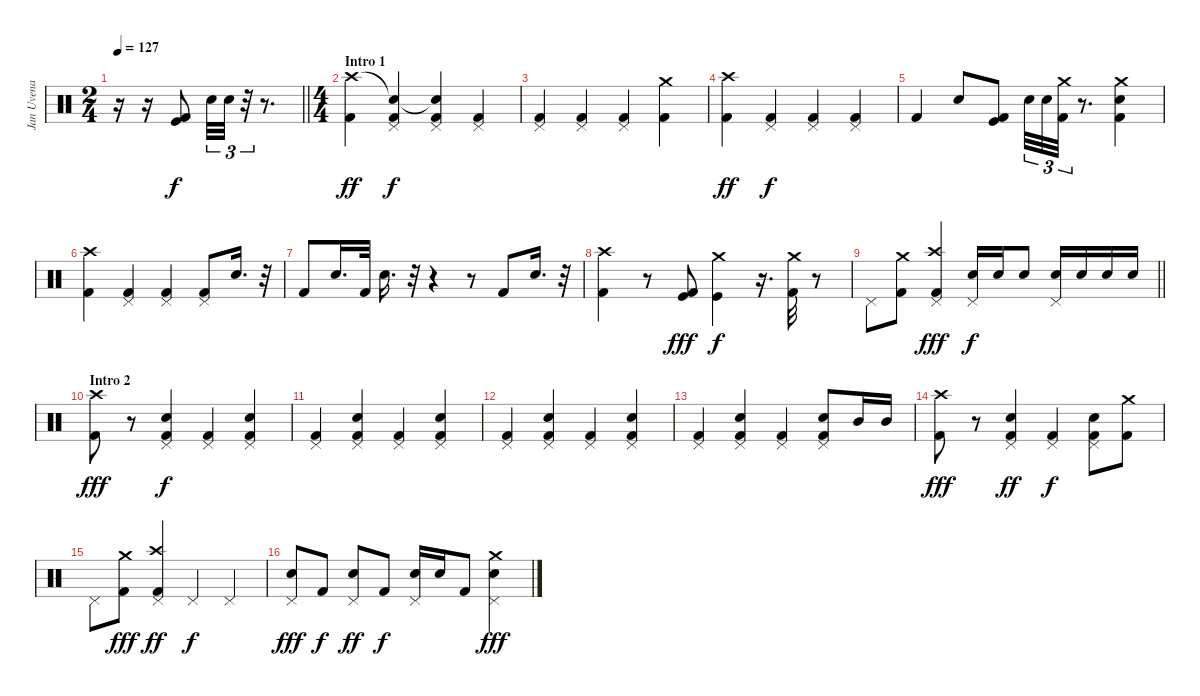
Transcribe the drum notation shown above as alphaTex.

\track ("Jan Uvena" "Jan Uvena") {instrument percussion}
\staff {score}
\articulation defaults
\ts (2 4)
\tempo 127
\clef neutral
\barLineRight lightlight
\ks c
r.16{dy f} r.16 ("Kick (hit)" "Kick (hit) 2").8 "Snare (hit) 2".32{tu (3 2)} "Snare (hit) 2".32{tu (3 2)} r.32{tu (3 2)} r.8{d} |
\ts (4 4)
\section ("" "Intro 1")
("Crash high (hit)" "Kick (hit) 2").4{dy ff} ("Snare (hit)"{t} "Pedal Hi-Hat (hit)" "Kick (hit) 2").4{dy f} ("Snare (hit)"{t} "Pedal Hi-Hat (hit)" "Kick (hit) 2").4 ("Pedal Hi-Hat (hit)" "Kick (hit) 2").4 |
("Pedal Hi-Hat (hit)" "Kick (hit) 2").4 ("Pedal Hi-Hat (hit)" "Kick (hit) 2").4 ("Pedal Hi-Hat (hit)" "Kick (hit) 2").4 ("Crash medium (hit)" "Kick (hit) 2").4 |
("Crash high (hit)" "Kick (hit) 2").4{dy ff} ("Pedal Hi-Hat (hit)" "Kick (hit) 2").4{dy f} ("Pedal Hi-Hat (hit)" "Kick (hit) 2").4 ("Pedal Hi-Hat (hit)" "Kick (hit) 2").4 |
"Kick (hit) 2".4 "Snare (hit) 2".8 ("Kick (hit)" "Kick (hit) 2").8 "Snare (hit) 2".32{tu (3 2)} "Snare (hit) 2".32{tu (3 2)} ("Crash medium (hit)" "Kick (hit) 2").32{tu (3 2)} r.8{d} ("Crash medium (hit)" "Snare (hit) 2" "Kick (hit) 2").4 |
("Crash high (hit)" "Kick (hit) 2").4 ("Pedal Hi-Hat (hit)" "Kick (hit) 2").4 ("Pedal Hi-Hat (hit)" "Kick (hit) 2").4 ("Pedal Hi-Hat (hit)" "Kick (hit) 2").8 "Snare (hit) 2".16{d} r.32 |
"Kick (hit) 2".8 "Snare (hit) 2".16{d} "Kick (hit) 2".32 "Snare (hit) 2".16{d} r.32 r.4 r.8 "Kick (hit) 2".8 "Snare (hit) 2".16{d} r.32 |
("Crash high (hit)" "Kick (hit) 2").4 r.8 ("Kick (hit)" "Kick (hit) 2").8{dy fff} ("Crash medium (hit)" "Kick (hit)").4{dy f} r.16{d} ("Crash medium (hit)" "Kick (hit) 2").32 r.8 |
\barLineRight lightlight "Pedal Hi-Hat (hit)".8
("Crash medium (hit)" "Kick (hit) 2").8 ("Crash high (hit)" "Pedal Hi-Hat (hit)" "Kick (hit) 2").4{dy fff} ("Pedal Hi-Hat (hit)" "Snare (hit) 2").16{dy f} "Snare (hit) 2".16 "Snare (hit) 2".8 ("Pedal Hi-Hat (hit)" "Snare (hit) 2").16 "Snare (hit) 2".16 "Snare (hit) 2".16 "Snare (hit) 2".16 |
\section ("" "Intro 2")
("Crash high (hit)" "Kick (hit) 2").8{dy fff} r.8 ("Pedal Hi-Hat (hit)" "Snare (hit) 2" "Kick (hit) 2").4{dy f} ("Pedal Hi-Hat (hit)" "Kick (hit) 2").4 ("Pedal Hi-Hat (hit)" "Snare (hit) 2" "Kick (hit) 2").4 |
("Pedal Hi-Hat (hit)" "Kick (hit) 2").4 ("Pedal Hi-Hat (hit)" "Snare (hit) 2" "Kick (hit) 2").4 ("Pedal Hi-Hat (hit)" "Kick (hit) 2").4 ("Pedal Hi-Hat (hit)" "Snare (hit) 2" "Kick (hit) 2").4 |
("Pedal Hi-Hat (hit)" "Kick (hit) 2").4 ("Pedal Hi-Hat (hit)" "Snare (hit) 2" "Kick (hit) 2").4 ("Pedal Hi-Hat (hit)" "Kick (hit) 2").4 ("Pedal Hi-Hat (hit)" "Snare (hit) 2" "Kick (hit) 2").4 |
("Pedal Hi-Hat (hit)" "Kick (hit) 2").4 ("Pedal Hi-Hat (hit)" "Snare (hit) 2" "Kick (hit) 2").4 ("Pedal Hi-Hat (hit)" "Kick (hit) 2").4 ("Pedal Hi-Hat (hit)" "Snare (hit) 2" "Kick (hit) 2").8 "Mid Tom (hit)".16 "Mid Tom (hit)".16 |
("Crash high (hit)" "Kick (hit) 2").8{dy fff} r.8 ("Pedal Hi-Hat (hit)" "Snare (hit) 2" "Kick (hit) 2").4{dy ff} ("Pedal Hi-Hat (hit)" "Kick (hit) 2").4{dy f} ("Pedal Hi-Hat (hit)" "Snare (hit) 2" "Kick (hit) 2").8 ("Crash medium (hit)" "Kick (hit) 2").8 |
"Pedal Hi-Hat (hit)".8 ("Crash medium (hit)" "Kick (hit) 2").8{dy fff} ("Crash high (hit)" "Pedal Hi-Hat (hit)" "Kick (hit) 2").4{dy ff} "Pedal Hi-Hat (hit)".4{dy f} "Pedal Hi-Hat (hit)".4 |
("Pedal Hi-Hat (hit)" "Snare (hit) 2").8{dy fff} "Kick (hit) 2".8{dy f} ("Pedal Hi-Hat (hit)" "Snare (hit) 2").8{dy ff} "Kick (hit) 2".8{dy f} ("Pedal Hi-Hat (hit)" "Snare (hit) 2").16 "Snare (hit) 2".16 "Kick (hit) 2".8 ("Crash medium (hit)" "Pedal Hi-Hat (hit)" "Snare (hit) 2").4{dy fff}
